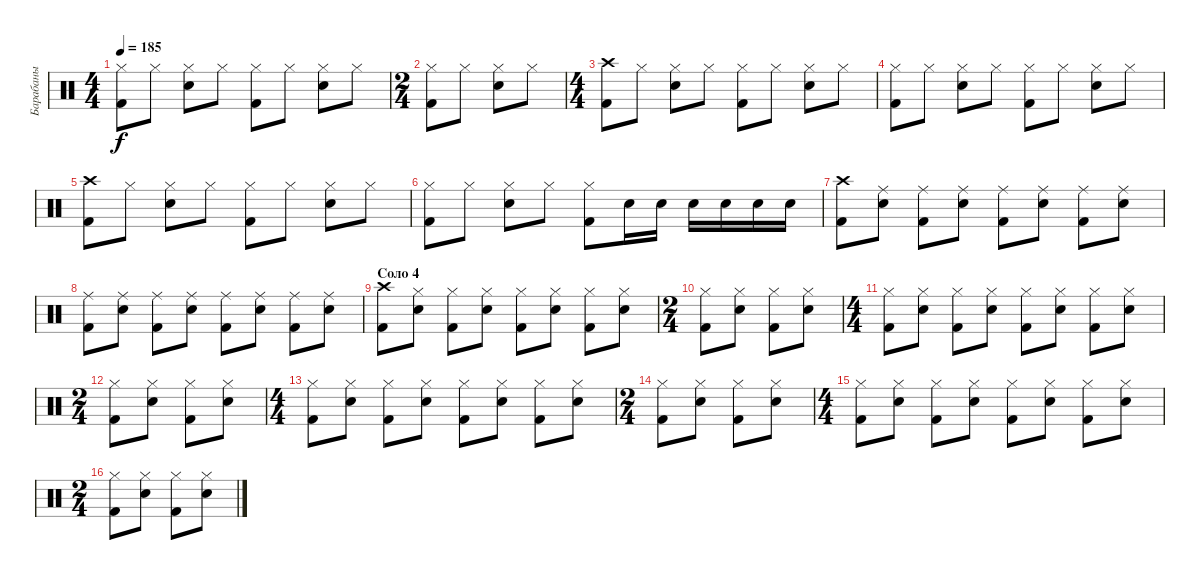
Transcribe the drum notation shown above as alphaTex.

\track ("Барабаны" "Барабаны") {instrument percussion}
\staff {score}
\articulation defaults
\ts (4 4)
\tempo 185
\clef neutral
\ks c
("Hi-Hat (closed)" "Kick (hit) 2").8{dy f} "Hi-Hat (closed)".8 ("Hi-Hat (closed)" "Snare (hit) 2").8 "Hi-Hat (closed)".8 ("Hi-Hat (closed)" "Kick (hit) 2").8 "Hi-Hat (closed)".8 ("Hi-Hat (closed)" "Snare (hit) 2").8 "Hi-Hat (closed)".8 |
\ts (2 4)
("Hi-Hat (closed)" "Kick (hit) 2").8 "Hi-Hat (closed)".8 ("Hi-Hat (closed)" "Snare (hit) 2").8 "Hi-Hat (closed)".8 |
\ts (4 4)
("Crash high (hit)" "Kick (hit) 2").8 "Hi-Hat (closed)".8 ("Hi-Hat (closed)" "Snare (hit) 2").8 "Hi-Hat (closed)".8 ("Hi-Hat (closed)" "Kick (hit) 2").8 "Hi-Hat (closed)".8 ("Hi-Hat (closed)" "Snare (hit) 2").8 "Hi-Hat (closed)".8 |
("Hi-Hat (closed)" "Kick (hit) 2").8 "Hi-Hat (closed)".8 ("Hi-Hat (closed)" "Snare (hit) 2").8 "Hi-Hat (closed)".8 ("Hi-Hat (closed)" "Kick (hit) 2").8 "Hi-Hat (closed)".8 ("Hi-Hat (closed)" "Snare (hit) 2").8 "Hi-Hat (closed)".8 |
("Crash high (hit)" "Kick (hit) 2").8 "Hi-Hat (closed)".8 ("Hi-Hat (closed)" "Snare (hit) 2").8 "Hi-Hat (closed)".8 ("Hi-Hat (closed)" "Kick (hit) 2").8 "Hi-Hat (closed)".8 ("Hi-Hat (closed)" "Snare (hit) 2").8 "Hi-Hat (closed)".8 |
("Hi-Hat (closed)" "Kick (hit) 2").8 "Hi-Hat (closed)".8 ("Hi-Hat (closed)" "Snare (hit) 2").8 "Hi-Hat (closed)".8 ("Hi-Hat (closed)" "Kick (hit) 2").8 "Snare (hit) 2".16 "Snare (hit) 2".16 "Snare (hit) 2".16 "Snare (hit) 2".16 "Snare (hit) 2".16 "Snare (hit) 2".16 |
("Crash high (hit)" "Kick (hit) 2").8 ("Ride (middle)" "Snare (hit) 2").8 ("Ride (middle)" "Kick (hit) 2").8 ("Ride (middle)" "Snare (hit) 2").8 ("Ride (middle)" "Kick (hit) 2").8 ("Ride (middle)" "Snare (hit) 2").8 ("Ride (middle)" "Kick (hit) 2").8 ("Ride (middle)" "Snare (hit) 2").8 |
("Ride (middle)" "Kick (hit) 2").8 ("Ride (middle)" "Snare (hit) 2").8 ("Ride (middle)" "Kick (hit) 2").8 ("Ride (middle)" "Snare (hit) 2").8 ("Ride (middle)" "Kick (hit) 2").8 ("Ride (middle)" "Snare (hit) 2").8 ("Ride (middle)" "Kick (hit) 2").8 ("Ride (middle)" "Snare (hit) 2").8 |
\section ("" "Соло 4")
("Crash high (hit)" "Kick (hit) 2").8 ("Hi-Hat (closed)" "Snare (hit) 2").8 ("Hi-Hat (closed)" "Kick (hit) 2").8 ("Hi-Hat (closed)" "Snare (hit) 2").8 ("Hi-Hat (closed)" "Kick (hit) 2").8 ("Hi-Hat (closed)" "Snare (hit) 2").8 ("Hi-Hat (closed)" "Kick (hit) 2").8 ("Hi-Hat (closed)" "Snare (hit) 2").8 |
\ts (2 4)
("Hi-Hat (closed)" "Kick (hit) 2").8 ("Hi-Hat (closed)" "Snare (hit) 2").8 ("Hi-Hat (closed)" "Kick (hit) 2").8 ("Hi-Hat (closed)" "Snare (hit) 2").8 |
\ts (4 4)
("Hi-Hat (closed)" "Kick (hit) 2").8 ("Hi-Hat (closed)" "Snare (hit) 2").8 ("Hi-Hat (closed)" "Kick (hit) 2").8 ("Hi-Hat (closed)" "Snare (hit) 2").8 ("Hi-Hat (closed)" "Kick (hit) 2").8 ("Hi-Hat (closed)" "Snare (hit) 2").8 ("Hi-Hat (closed)" "Kick (hit) 2").8 ("Hi-Hat (closed)" "Snare (hit) 2").8 |
\ts (2 4)
("Hi-Hat (closed)" "Kick (hit) 2").8 ("Hi-Hat (closed)" "Snare (hit) 2").8 ("Hi-Hat (closed)" "Kick (hit) 2").8 ("Hi-Hat (closed)" "Snare (hit) 2").8 |
\ts (4 4)
("Hi-Hat (closed)" "Kick (hit) 2").8 ("Hi-Hat (closed)" "Snare (hit) 2").8 ("Hi-Hat (closed)" "Kick (hit) 2").8 ("Hi-Hat (closed)" "Snare (hit) 2").8 ("Hi-Hat (closed)" "Kick (hit) 2").8 ("Hi-Hat (closed)" "Snare (hit) 2").8 ("Hi-Hat (closed)" "Kick (hit) 2").8 ("Hi-Hat (closed)" "Snare (hit) 2").8 |
\ts (2 4)
("Hi-Hat (closed)" "Kick (hit) 2").8 ("Hi-Hat (closed)" "Snare (hit) 2").8 ("Hi-Hat (closed)" "Kick (hit) 2").8 ("Hi-Hat (closed)" "Snare (hit) 2").8 |
\ts (4 4)
("Hi-Hat (closed)" "Kick (hit) 2").8 ("Hi-Hat (closed)" "Snare (hit) 2").8 ("Hi-Hat (closed)" "Kick (hit) 2").8 ("Hi-Hat (closed)" "Snare (hit) 2").8 ("Hi-Hat (closed)" "Kick (hit) 2").8 ("Hi-Hat (closed)" "Snare (hit) 2").8 ("Hi-Hat (closed)" "Kick (hit) 2").8 ("Hi-Hat (closed)" "Snare (hit) 2").8 |
\ts (2 4)
("Hi-Hat (closed)" "Kick (hit) 2").8 ("Hi-Hat (closed)" "Snare (hit) 2").8 ("Hi-Hat (closed)" "Kick (hit) 2").8 ("Hi-Hat (closed)" "Snare (hit) 2").8
